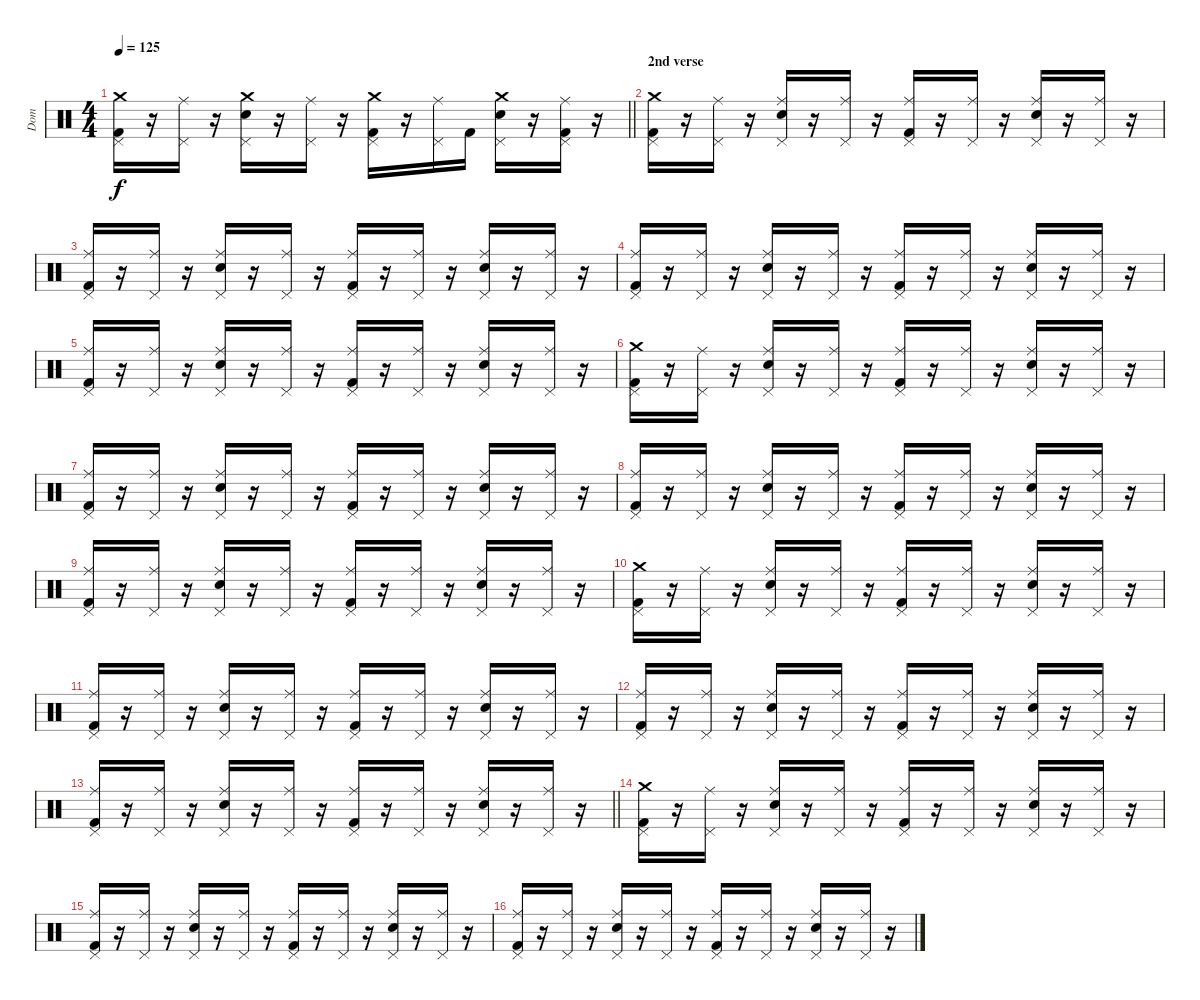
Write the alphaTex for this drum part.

\track ("Dom" "Dom") {instrument percussion}
\staff {score}
\articulation defaults
\ts (4 4)
\tempo 125
\clef neutral
\barLineRight lightlight
\ks c
("Crash medium (hit)" "Pedal Hi-Hat (hit)" "Kick (hit) 2").16{dy f} r.16 ("Ride (middle)" "Pedal Hi-Hat (hit)").16 r.16 ("Crash medium (hit)" "Snare (hit) 2" "Pedal Hi-Hat (hit)").16 r.16 ("Ride (middle)" "Pedal Hi-Hat (hit)").16 r.16 ("Crash medium (hit)" "Pedal Hi-Hat (hit)" "Kick (hit) 2").16 r.16 ("Ride (middle)" "Pedal Hi-Hat (hit)").16 "Kick (hit) 2".16 ("Crash medium (hit)" "Snare (hit) 2" "Pedal Hi-Hat (hit)").16 r.16 ("Ride (middle)" "Pedal Hi-Hat (hit)" "Kick (hit) 2").16 r.16 |
\section ("" "2nd verse")
("Crash medium (hit)" "Pedal Hi-Hat (hit)" "Kick (hit) 2").16 r.16 ("Ride (middle)" "Pedal Hi-Hat (hit)").16 r.16 ("Ride (middle)" "Snare (hit) 2" "Pedal Hi-Hat (hit)").16 r.16 ("Ride (middle)" "Pedal Hi-Hat (hit)").16 r.16 ("Ride (middle)" "Pedal Hi-Hat (hit)" "Kick (hit) 2").16 r.16 ("Ride (middle)" "Pedal Hi-Hat (hit)").16 r.16 ("Ride (middle)" "Snare (hit) 2" "Pedal Hi-Hat (hit)").16 r.16 ("Ride (middle)" "Pedal Hi-Hat (hit)").16 r.16 |
("Ride (middle)" "Pedal Hi-Hat (hit)" "Kick (hit) 2").16 r.16 ("Ride (middle)" "Pedal Hi-Hat (hit)").16 r.16 ("Ride (middle)" "Snare (hit) 2" "Pedal Hi-Hat (hit)").16 r.16 ("Ride (middle)" "Pedal Hi-Hat (hit)").16 r.16 ("Ride (middle)" "Pedal Hi-Hat (hit)" "Kick (hit) 2").16 r.16 ("Ride (middle)" "Pedal Hi-Hat (hit)").16 r.16 ("Ride (middle)" "Snare (hit) 2" "Pedal Hi-Hat (hit)").16 r.16 ("Ride (middle)" "Pedal Hi-Hat (hit)").16 r.16 |
("Ride (middle)" "Pedal Hi-Hat (hit)" "Kick (hit) 2").16 r.16 ("Ride (middle)" "Pedal Hi-Hat (hit)").16 r.16 ("Ride (middle)" "Snare (hit) 2" "Pedal Hi-Hat (hit)").16 r.16 ("Ride (middle)" "Pedal Hi-Hat (hit)").16 r.16 ("Ride (middle)" "Pedal Hi-Hat (hit)" "Kick (hit) 2").16 r.16 ("Ride (middle)" "Pedal Hi-Hat (hit)").16 r.16 ("Ride (middle)" "Snare (hit) 2" "Pedal Hi-Hat (hit)").16 r.16 ("Ride (middle)" "Pedal Hi-Hat (hit)").16 r.16 |
("Ride (middle)" "Pedal Hi-Hat (hit)" "Kick (hit) 2").16 r.16 ("Ride (middle)" "Pedal Hi-Hat (hit)").16 r.16 ("Ride (middle)" "Snare (hit) 2" "Pedal Hi-Hat (hit)").16 r.16 ("Ride (middle)" "Pedal Hi-Hat (hit)").16 r.16 ("Ride (middle)" "Pedal Hi-Hat (hit)" "Kick (hit) 2").16 r.16 ("Ride (middle)" "Pedal Hi-Hat (hit)").16 r.16 ("Ride (middle)" "Snare (hit) 2" "Pedal Hi-Hat (hit)").16 r.16 ("Ride (middle)" "Pedal Hi-Hat (hit)").16 r.16 |
("Crash medium (hit)" "Pedal Hi-Hat (hit)" "Kick (hit) 2").16 r.16 ("Ride (middle)" "Pedal Hi-Hat (hit)").16 r.16 ("Ride (middle)" "Snare (hit) 2" "Pedal Hi-Hat (hit)").16 r.16 ("Ride (middle)" "Pedal Hi-Hat (hit)").16 r.16 ("Ride (middle)" "Pedal Hi-Hat (hit)" "Kick (hit) 2").16 r.16 ("Ride (middle)" "Pedal Hi-Hat (hit)").16 r.16 ("Ride (middle)" "Snare (hit) 2" "Pedal Hi-Hat (hit)").16 r.16 ("Ride (middle)" "Pedal Hi-Hat (hit)").16 r.16 |
("Ride (middle)" "Pedal Hi-Hat (hit)" "Kick (hit) 2").16 r.16 ("Ride (middle)" "Pedal Hi-Hat (hit)").16 r.16 ("Ride (middle)" "Snare (hit) 2" "Pedal Hi-Hat (hit)").16 r.16 ("Ride (middle)" "Pedal Hi-Hat (hit)").16 r.16 ("Ride (middle)" "Pedal Hi-Hat (hit)" "Kick (hit) 2").16 r.16 ("Ride (middle)" "Pedal Hi-Hat (hit)").16 r.16 ("Ride (middle)" "Snare (hit) 2" "Pedal Hi-Hat (hit)").16 r.16 ("Ride (middle)" "Pedal Hi-Hat (hit)").16 r.16 |
("Ride (middle)" "Pedal Hi-Hat (hit)" "Kick (hit) 2").16 r.16 ("Ride (middle)" "Pedal Hi-Hat (hit)").16 r.16 ("Ride (middle)" "Snare (hit) 2" "Pedal Hi-Hat (hit)").16 r.16 ("Ride (middle)" "Pedal Hi-Hat (hit)").16 r.16 ("Ride (middle)" "Pedal Hi-Hat (hit)" "Kick (hit) 2").16 r.16 ("Ride (middle)" "Pedal Hi-Hat (hit)").16 r.16 ("Ride (middle)" "Snare (hit) 2" "Pedal Hi-Hat (hit)").16 r.16 ("Ride (middle)" "Pedal Hi-Hat (hit)").16 r.16 |
("Ride (middle)" "Pedal Hi-Hat (hit)" "Kick (hit) 2").16 r.16 ("Ride (middle)" "Pedal Hi-Hat (hit)").16 r.16 ("Ride (middle)" "Snare (hit) 2" "Pedal Hi-Hat (hit)").16 r.16 ("Ride (middle)" "Pedal Hi-Hat (hit)").16 r.16 ("Ride (middle)" "Pedal Hi-Hat (hit)" "Kick (hit) 2").16 r.16 ("Ride (middle)" "Pedal Hi-Hat (hit)").16 r.16 ("Ride (middle)" "Snare (hit) 2" "Pedal Hi-Hat (hit)").16 r.16 ("Ride (middle)" "Pedal Hi-Hat (hit)").16 r.16 |
("Crash medium (hit)" "Pedal Hi-Hat (hit)" "Kick (hit) 2").16 r.16 ("Ride (middle)" "Pedal Hi-Hat (hit)").16 r.16 ("Ride (middle)" "Snare (hit) 2" "Pedal Hi-Hat (hit)").16 r.16 ("Ride (middle)" "Pedal Hi-Hat (hit)").16 r.16 ("Ride (middle)" "Pedal Hi-Hat (hit)" "Kick (hit) 2").16 r.16 ("Ride (middle)" "Pedal Hi-Hat (hit)").16 r.16 ("Ride (middle)" "Snare (hit) 2" "Pedal Hi-Hat (hit)").16 r.16 ("Ride (middle)" "Pedal Hi-Hat (hit)").16 r.16 |
("Ride (middle)" "Pedal Hi-Hat (hit)" "Kick (hit) 2").16 r.16 ("Ride (middle)" "Pedal Hi-Hat (hit)").16 r.16 ("Ride (middle)" "Snare (hit) 2" "Pedal Hi-Hat (hit)").16 r.16 ("Ride (middle)" "Pedal Hi-Hat (hit)").16 r.16 ("Ride (middle)" "Pedal Hi-Hat (hit)" "Kick (hit) 2").16 r.16 ("Ride (middle)" "Pedal Hi-Hat (hit)").16 r.16 ("Ride (middle)" "Snare (hit) 2" "Pedal Hi-Hat (hit)").16 r.16 ("Ride (middle)" "Pedal Hi-Hat (hit)").16 r.16 |
("Ride (middle)" "Pedal Hi-Hat (hit)" "Kick (hit) 2").16 r.16 ("Ride (middle)" "Pedal Hi-Hat (hit)").16 r.16 ("Ride (middle)" "Snare (hit) 2" "Pedal Hi-Hat (hit)").16 r.16 ("Ride (middle)" "Pedal Hi-Hat (hit)").16 r.16 ("Ride (middle)" "Pedal Hi-Hat (hit)" "Kick (hit) 2").16 r.16 ("Ride (middle)" "Pedal Hi-Hat (hit)").16 r.16 ("Ride (middle)" "Snare (hit) 2" "Pedal Hi-Hat (hit)").16 r.16 ("Ride (middle)" "Pedal Hi-Hat (hit)").16 r.16 |
\barLineRight lightlight
("Ride (middle)" "Pedal Hi-Hat (hit)" "Kick (hit) 2").16 r.16 ("Ride (middle)" "Pedal Hi-Hat (hit)").16 r.16 ("Ride (middle)" "Snare (hit) 2" "Pedal Hi-Hat (hit)").16 r.16 ("Ride (middle)" "Pedal Hi-Hat (hit)").16 r.16 ("Ride (middle)" "Pedal Hi-Hat (hit)" "Kick (hit) 2").16 r.16 ("Ride (middle)" "Pedal Hi-Hat (hit)").16 r.16 ("Ride (middle)" "Snare (hit) 2" "Pedal Hi-Hat (hit)").16 r.16 ("Ride (middle)" "Pedal Hi-Hat (hit)").16 r.16 |
("Crash medium (hit)" "Pedal Hi-Hat (hit)" "Kick (hit) 2").16 r.16 ("Ride (middle)" "Pedal Hi-Hat (hit)").16 r.16 ("Ride (middle)" "Snare (hit) 2" "Pedal Hi-Hat (hit)").16 r.16 ("Ride (middle)" "Pedal Hi-Hat (hit)").16 r.16 ("Ride (middle)" "Pedal Hi-Hat (hit)" "Kick (hit) 2").16 r.16 ("Ride (middle)" "Pedal Hi-Hat (hit)").16 r.16 ("Ride (middle)" "Snare (hit) 2" "Pedal Hi-Hat (hit)").16 r.16 ("Ride (middle)" "Pedal Hi-Hat (hit)").16 r.16 |
("Ride (middle)" "Pedal Hi-Hat (hit)" "Kick (hit) 2").16 r.16 ("Ride (middle)" "Pedal Hi-Hat (hit)").16 r.16 ("Ride (middle)" "Snare (hit) 2" "Pedal Hi-Hat (hit)").16 r.16 ("Ride (middle)" "Pedal Hi-Hat (hit)").16 r.16 ("Ride (middle)" "Pedal Hi-Hat (hit)" "Kick (hit) 2").16 r.16 ("Ride (middle)" "Pedal Hi-Hat (hit)").16 r.16 ("Ride (middle)" "Snare (hit) 2" "Pedal Hi-Hat (hit)").16 r.16 ("Ride (middle)" "Pedal Hi-Hat (hit)").16 r.16 |
("Ride (middle)" "Pedal Hi-Hat (hit)" "Kick (hit) 2").16 r.16 ("Ride (middle)" "Pedal Hi-Hat (hit)").16 r.16 ("Ride (middle)" "Snare (hit) 2" "Pedal Hi-Hat (hit)").16 r.16 ("Ride (middle)" "Pedal Hi-Hat (hit)").16 r.16 ("Ride (middle)" "Pedal Hi-Hat (hit)" "Kick (hit) 2").16 r.16 ("Ride (middle)" "Pedal Hi-Hat (hit)").16 r.16 ("Ride (middle)" "Snare (hit) 2" "Pedal Hi-Hat (hit)").16 r.16 ("Ride (middle)" "Pedal Hi-Hat (hit)").16 r.16
